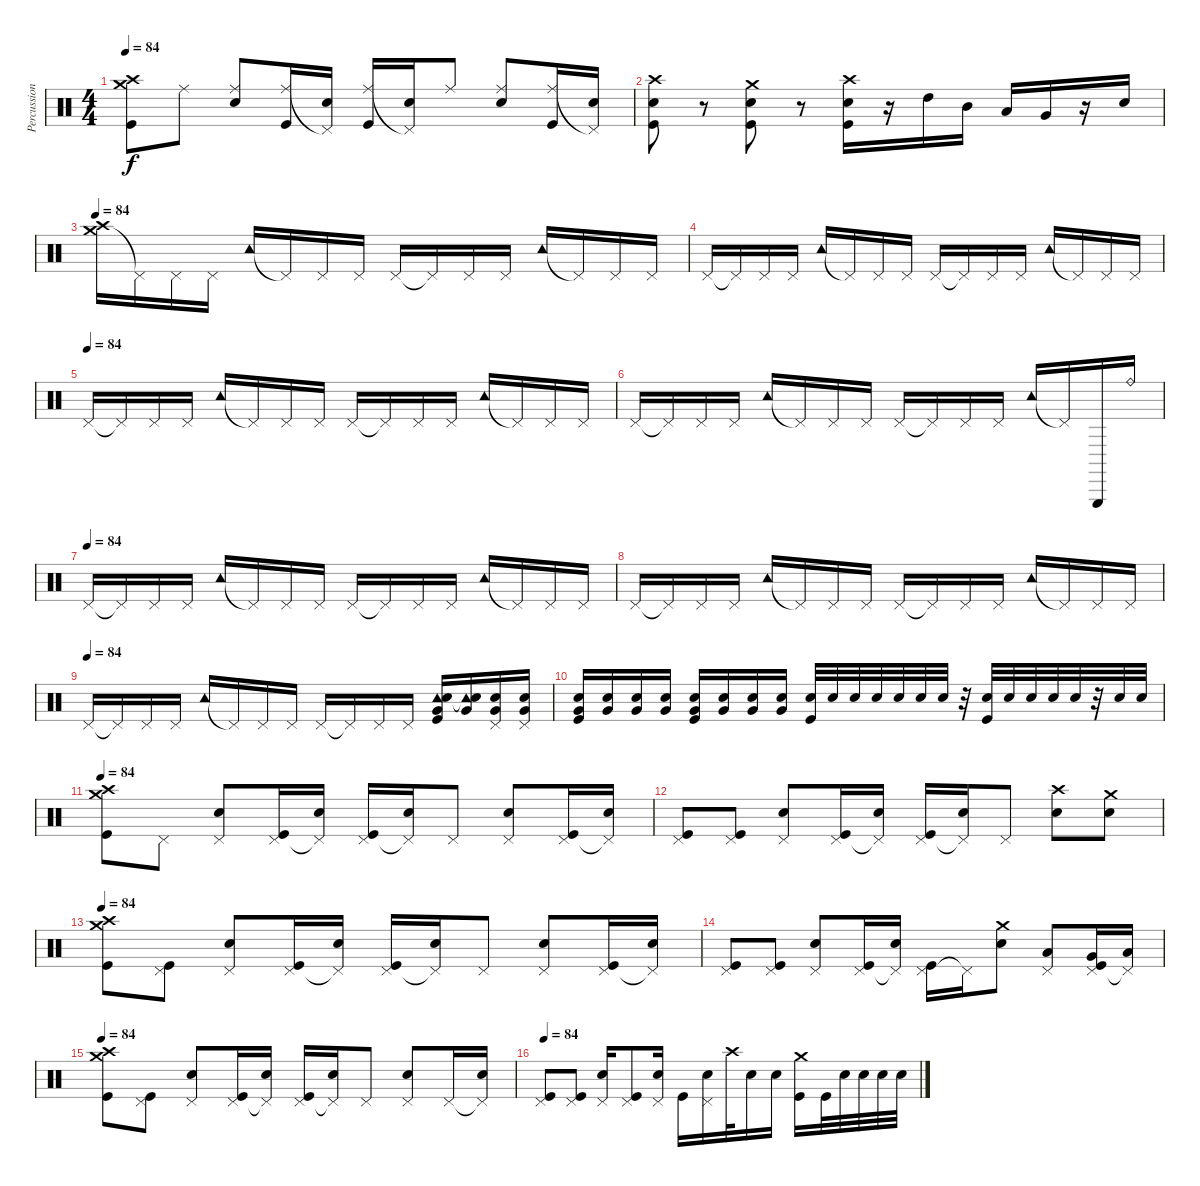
\track ("Percussion" "Percussion") {instrument percussion}
\staff {score}
\articulation defaults
\ts (4 4)
\tempo 84
\clef neutral
\ks c
("Crash medium (hit)" "Crash high (hit)" "Kick (hit)").8{dy f} "Ride (middle)".8 ("Ride (middle)" "Electric Snare (hit)").8 ("Ride (middle)" "Kick (hit)").16 ("Pedal Hi-Hat (hit)"{t} "Electric Snare (hit)").16 ("Ride (middle)" "Kick (hit)").16 ("Pedal Hi-Hat (hit)"{t} "Electric Snare (hit)").16 "Ride (middle)".8 ("Ride (middle)" "Electric Snare (hit)").8 ("Ride (middle)" "Kick (hit)").16 ("Pedal Hi-Hat (hit)"{t} "Electric Snare (hit)").16 |
("Crash high (hit)" "Electric Snare (hit)" "Kick (hit)").8 r.8 ("Crash medium (hit)" "Electric Snare (hit)" "Kick (hit)").8 r.8 ("Crash high (hit)" "Electric Snare (hit)" "Kick (hit)").16 r.16 "High Tom (hit)".16 "Mid Tom (hit)".16 "Low Tom (hit)".16 "Very Low Tom (hit)".16 r.16 "Electric Snare (hit)".16 |
\tempo 84
("Crash medium (hit)" "Crash high (hit)").16 "Pedal Hi-Hat (hit)"{t}.16 "Pedal Hi-Hat (hit)".16 "Pedal Hi-Hat (hit)".16 "Tambourine (hit)".16 "Pedal Hi-Hat (hit)"{t}.16 "Pedal Hi-Hat (hit)".16 "Pedal Hi-Hat (hit)".16 "Pedal Hi-Hat (hit)".16 "Pedal Hi-Hat (hit)"{t}.16 "Pedal Hi-Hat (hit)".16 "Pedal Hi-Hat (hit)".16 "Tambourine (hit)".16 "Pedal Hi-Hat (hit)"{t}.16 "Pedal Hi-Hat (hit)".16 "Pedal Hi-Hat (hit)".16 |
"Pedal Hi-Hat (hit)".16 "Pedal Hi-Hat (hit)"{t}.16 "Pedal Hi-Hat (hit)".16 "Pedal Hi-Hat (hit)".16 "Tambourine (hit)".16 "Pedal Hi-Hat (hit)"{t}.16 "Pedal Hi-Hat (hit)".16 "Pedal Hi-Hat (hit)".16 "Pedal Hi-Hat (hit)".16 "Pedal Hi-Hat (hit)"{t}.16 "Pedal Hi-Hat (hit)".16 "Pedal Hi-Hat (hit)".16 "Tambourine (hit)".16 "Pedal Hi-Hat (hit)"{t}.16 "Pedal Hi-Hat (hit)".16 "Pedal Hi-Hat (hit)".16 |
\tempo 105
\tempo (84)
"Pedal Hi-Hat (hit)".16 "Pedal Hi-Hat (hit)"{t}.16 "Pedal Hi-Hat (hit)".16 "Pedal Hi-Hat (hit)".16 "Tambourine (hit)".16 "Pedal Hi-Hat (hit)"{t}.16 "Pedal Hi-Hat (hit)".16 "Pedal Hi-Hat (hit)".16 "Pedal Hi-Hat (hit)".16 "Pedal Hi-Hat (hit)"{t}.16 "Pedal Hi-Hat (hit)".16 "Pedal Hi-Hat (hit)".16 "Tambourine (hit)".16 "Pedal Hi-Hat (hit)"{t}.16 "Pedal Hi-Hat (hit)".16 "Pedal Hi-Hat (hit)".16 |
"Pedal Hi-Hat (hit)".16 "Pedal Hi-Hat (hit)"{t}.16 "Pedal Hi-Hat (hit)".16 "Pedal Hi-Hat (hit)".16 "Tambourine (hit)".16 "Pedal Hi-Hat (hit)"{t}.16 "Pedal Hi-Hat (hit)".16 "Pedal Hi-Hat (hit)".16 "Pedal Hi-Hat (hit)".16 "Pedal Hi-Hat (hit)"{t}.16 "Pedal Hi-Hat (hit)".16 "Pedal Hi-Hat (hit)".16 "Tambourine (hit)".16 "Pedal Hi-Hat (hit)"{t}.16 "Triangle (hit)".16 "Ride (bell)".16 |
\tempo (84)
"Pedal Hi-Hat (hit)".16 "Pedal Hi-Hat (hit)"{t}.16 "Pedal Hi-Hat (hit)".16 "Pedal Hi-Hat (hit)".16 "Tambourine (hit)".16 "Pedal Hi-Hat (hit)"{t}.16 "Pedal Hi-Hat (hit)".16 "Pedal Hi-Hat (hit)".16 "Pedal Hi-Hat (hit)".16 "Pedal Hi-Hat (hit)"{t}.16 "Pedal Hi-Hat (hit)".16 "Pedal Hi-Hat (hit)".16 "Tambourine (hit)".16 "Pedal Hi-Hat (hit)"{t}.16 "Pedal Hi-Hat (hit)".16 "Pedal Hi-Hat (hit)".16 |
"Pedal Hi-Hat (hit)".16 "Pedal Hi-Hat (hit)"{t}.16 "Pedal Hi-Hat (hit)".16 "Pedal Hi-Hat (hit)".16 "Tambourine (hit)".16 "Pedal Hi-Hat (hit)"{t}.16 "Pedal Hi-Hat (hit)".16 "Pedal Hi-Hat (hit)".16 "Pedal Hi-Hat (hit)".16 "Pedal Hi-Hat (hit)"{t}.16 "Pedal Hi-Hat (hit)".16 "Pedal Hi-Hat (hit)".16 "Tambourine (hit)".16 "Pedal Hi-Hat (hit)"{t}.16 "Pedal Hi-Hat (hit)".16 "Pedal Hi-Hat (hit)".16 |
\tempo (84)
"Pedal Hi-Hat (hit)".16 "Pedal Hi-Hat (hit)"{t}.16 "Pedal Hi-Hat (hit)".16 "Pedal Hi-Hat (hit)".16 "Tambourine (hit)".16 "Pedal Hi-Hat (hit)"{t}.16 "Pedal Hi-Hat (hit)".16 "Pedal Hi-Hat (hit)".16 "Pedal Hi-Hat (hit)".16 "Pedal Hi-Hat (hit)"{t}.16 "Pedal Hi-Hat (hit)".16 "Pedal Hi-Hat (hit)".16 ("Tambourine (hit)" "Very Low Tom (hit)" "Electric Snare (hit)" "Kick (hit)").16{volume 8} ("Tambourine (hit)"{t} "Very Low Tom (hit)" "Electric Snare (hit)").16{volume 10} ("Pedal Hi-Hat (hit)" "Very Low Tom (hit)" "Electric Snare (hit)").16 ("Pedal Hi-Hat (hit)" "Very Low Tom (hit)" "Electric Snare (hit)").16 |
("Very Low Tom (hit)" "Electric Snare (hit)" "Kick (hit)").16{volume 13} ("Very Low Tom (hit)" "Electric Snare (hit)").16 ("Very Low Tom (hit)" "Electric Snare (hit)").16 ("Very Low Tom (hit)" "Electric Snare (hit)").16 ("Very Low Tom (hit)" "Electric Snare (hit)" "Kick (hit)").16 ("Very Low Tom (hit)" "Electric Snare (hit)").16 ("Very Low Tom (hit)" "Electric Snare (hit)").16 ("Very Low Tom (hit)" "Electric Snare (hit)").16 ("Electric Snare (hit)" "Kick (hit)").32 "Electric Snare (hit)".32 "Electric Snare (hit)".32 "Electric Snare (hit)".32 "Electric Snare (hit)".32 "Electric Snare (hit)".32 "Electric Snare (hit)".32 r.32 ("Electric Snare (hit)" "Kick (hit)").32 "Electric Snare (hit)".32 "Electric Snare (hit)".32 "Electric Snare (hit)".32 "Electric Snare (hit)".32 r.32 "Electric Snare (hit)".32 "Electric Snare (hit)".32 |
\tempo 84
("Crash medium (hit)" "Crash high (hit)" "Kick (hit)").8 "Pedal Hi-Hat (hit)".8 ("Pedal Hi-Hat (hit)" "Electric Snare (hit)").8 ("Pedal Hi-Hat (hit)" "Kick (hit)").16 ("Pedal Hi-Hat (hit)"{t} "Electric Snare (hit)").16 ("Pedal Hi-Hat (hit)" "Kick (hit)").16 ("Pedal Hi-Hat (hit)"{t} "Electric Snare (hit)").16 "Pedal Hi-Hat (hit)".8 ("Pedal Hi-Hat (hit)" "Electric Snare (hit)").8 ("Pedal Hi-Hat (hit)" "Kick (hit)").16 ("Pedal Hi-Hat (hit)"{t} "Electric Snare (hit)").16 |
("Pedal Hi-Hat (hit)" "Kick (hit)").8 ("Pedal Hi-Hat (hit)" "Kick (hit)").8 ("Pedal Hi-Hat (hit)" "Electric Snare (hit)").8 ("Pedal Hi-Hat (hit)" "Kick (hit)").16 ("Pedal Hi-Hat (hit)"{t} "Electric Snare (hit)").16 ("Pedal Hi-Hat (hit)" "Kick (hit)").16 ("Pedal Hi-Hat (hit)"{t} "Electric Snare (hit)").16 "Pedal Hi-Hat (hit)".8 ("Crash high (hit)" "Electric Snare (hit)").8 ("Crash medium (hit)" "Electric Snare (hit)").8 |
\tempo 84
("Crash medium (hit)" "Crash high (hit)" "Kick (hit)").8 ("Pedal Hi-Hat (hit)" "Kick (hit)").8 ("Pedal Hi-Hat (hit)" "Electric Snare (hit)").8 ("Pedal Hi-Hat (hit)" "Kick (hit)").16 ("Pedal Hi-Hat (hit)"{t} "Electric Snare (hit)").16 ("Pedal Hi-Hat (hit)" "Kick (hit)").16 ("Pedal Hi-Hat (hit)"{t} "Electric Snare (hit)").16 "Pedal Hi-Hat (hit)".8 ("Pedal Hi-Hat (hit)" "Electric Snare (hit)").8 ("Pedal Hi-Hat (hit)" "Kick (hit)").16 ("Pedal Hi-Hat (hit)"{t} "Electric Snare (hit)").16 |
("Pedal Hi-Hat (hit)" "Kick (hit)").8 ("Pedal Hi-Hat (hit)" "Kick (hit)").8 ("Pedal Hi-Hat (hit)" "Electric Snare (hit)").8 ("Pedal Hi-Hat (hit)" "Kick (hit)").16 ("Pedal Hi-Hat (hit)"{t} "Electric Snare (hit)").16 ("Pedal Hi-Hat (hit)" "Kick (hit)").16 "Pedal Hi-Hat (hit)"{t}.16 ("Crash medium (hit)" "Electric Snare (hit)").8 ("Pedal Hi-Hat (hit)" "Low Tom (hit)").8 ("Pedal Hi-Hat (hit)" "Very Low Tom (hit)" "Kick (hit)").16 ("Pedal Hi-Hat (hit)"{t} "Low Floor Tom (hit)").16 |
\tempo 84
("Crash medium (hit)" "Crash high (hit)" "Kick (hit)").8 ("Pedal Hi-Hat (hit)" "Kick (hit)").8 ("Pedal Hi-Hat (hit)" "Electric Snare (hit)").8 ("Pedal Hi-Hat (hit)" "Kick (hit)").16 ("Pedal Hi-Hat (hit)"{t} "Electric Snare (hit)").16 ("Pedal Hi-Hat (hit)" "Kick (hit)").16 ("Pedal Hi-Hat (hit)"{t} "Electric Snare (hit)").16 "Pedal Hi-Hat (hit)".8 ("Pedal Hi-Hat (hit)" "Electric Snare (hit)").8 "Pedal Hi-Hat (hit)".16 ("Pedal Hi-Hat (hit)"{t} "Electric Snare (hit)").16 |
\tempo 84
("Pedal Hi-Hat (hit)" "Kick (hit)").8 ("Pedal Hi-Hat (hit)" "Kick (hit)").8 ("Pedal Hi-Hat (hit)" "Electric Snare (hit)").16 ("Pedal Hi-Hat (hit)" "Kick (hit)").8 ("Pedal Hi-Hat (hit)" "Electric Snare (hit)").16 "Kick (hit)".16 ("Pedal Hi-Hat (hit)" "Electric Snare (hit)").16 "Crash high (hit)".32 "Electric Snare (hit)".16 "Electric Snare (hit)".16 ("Crash medium (hit)" "Kick (hit)").16 "Kick (hit)".32 "Electric Snare (hit)".32 "Electric Snare (hit)".32 "Electric Snare (hit)".32 "Electric Snare (hit)".32
